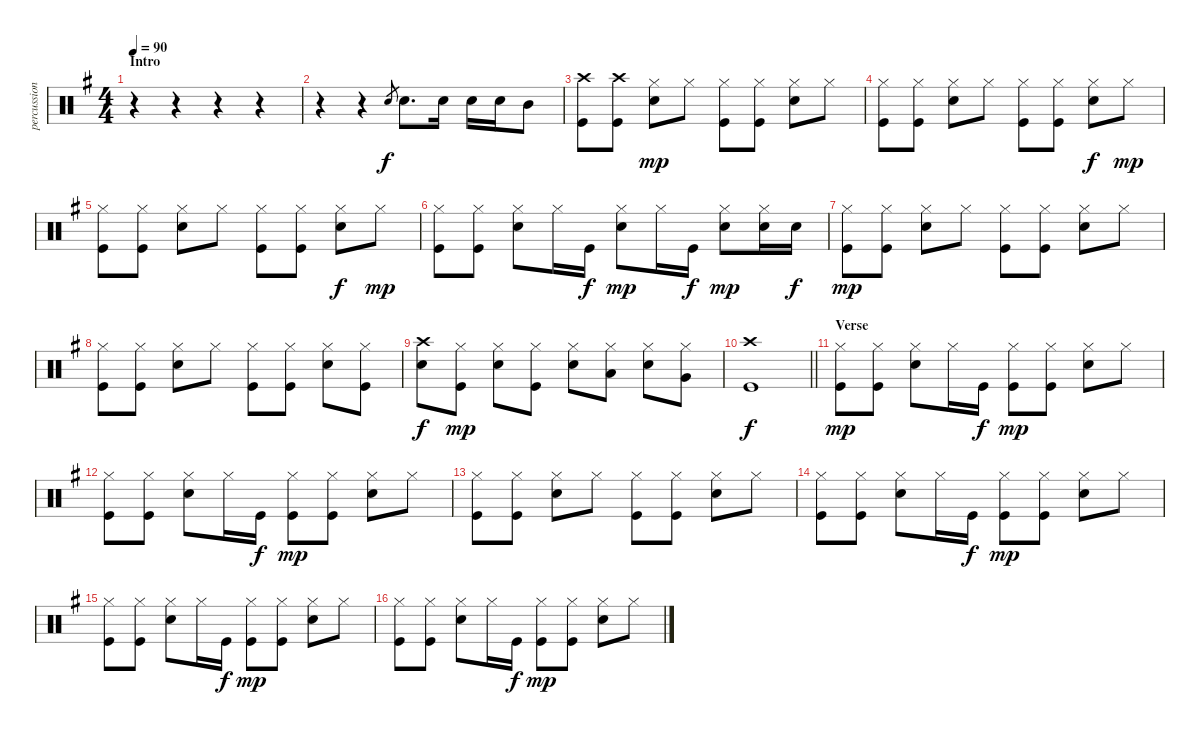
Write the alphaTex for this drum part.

\track ("percussion" "percussion") {instrument percussion}
\staff {score}
\articulation defaults
\ts (4 4)
\section ("" "Intro")
\tempo 90
\clef neutral
\ks g
r.4{dy f} r.4 r.4 r.4 |
r.4 r.4 "Electric Snare (hit)".8{gr} "Electric Snare (hit)".8{d} "Electric Snare (hit)".16 "Electric Snare (hit)".16 "Electric Snare (hit)".16 "Mid Tom (hit)".8 |
("Crash high (hit)" "Kick (hit)").8 ("Crash high (hit)" "Kick (hit)").8 ("Electric Snare (hit)" "Hi-Hat (closed)").8{dy mp} "Hi-Hat (closed)".8 ("Hi-Hat (closed)" "Kick (hit)").8 ("Hi-Hat (closed)" "Kick (hit)").8 ("Electric Snare (hit)" "Hi-Hat (closed)").8 "Hi-Hat (closed)".8 |
("Hi-Hat (closed)" "Kick (hit)").8 ("Hi-Hat (closed)" "Kick (hit)").8 ("Electric Snare (hit)" "Hi-Hat (closed)").8 "Hi-Hat (closed)".8 ("Hi-Hat (closed)" "Kick (hit)").8 ("Hi-Hat (closed)" "Kick (hit)").8 ("Electric Snare (hit)" "Hi-Hat (closed)").8{dy f} "Hi-Hat (closed)".8{dy mp} |
("Hi-Hat (closed)" "Kick (hit)").8 ("Hi-Hat (closed)" "Kick (hit)").8 ("Electric Snare (hit)" "Hi-Hat (closed)").8 "Hi-Hat (closed)".8 ("Hi-Hat (closed)" "Kick (hit)").8 ("Hi-Hat (closed)" "Kick (hit)").8 ("Electric Snare (hit)" "Hi-Hat (closed)").8{dy f} "Hi-Hat (closed)".8{dy mp} |
("Hi-Hat (closed)" "Kick (hit)").8 ("Hi-Hat (closed)" "Kick (hit)").8 ("Electric Snare (hit)" "Hi-Hat (closed)").8 "Hi-Hat (closed)".16 "Kick (hit)".16{dy f} ("Electric Snare (hit)" "Hi-Hat (closed)").8{dy mp} "Hi-Hat (closed)".16 "Kick (hit)".16{dy f} ("Electric Snare (hit)" "Hi-Hat (closed)").8{dy mp} ("Electric Snare (hit)" "Hi-Hat (closed)").16 "Electric Snare (hit)".16{dy f} |
("Hi-Hat (closed)" "Kick (hit)").8{dy mp} ("Hi-Hat (closed)" "Kick (hit)").8 ("Electric Snare (hit)" "Hi-Hat (closed)").8 "Hi-Hat (closed)".8 ("Hi-Hat (closed)" "Kick (hit)").8 ("Hi-Hat (closed)" "Kick (hit)").8 ("Electric Snare (hit)" "Hi-Hat (closed)").8 "Hi-Hat (closed)".8 |
("Hi-Hat (closed)" "Kick (hit)").8 ("Hi-Hat (closed)" "Kick (hit)").8 ("Electric Snare (hit)" "Hi-Hat (closed)").8 "Hi-Hat (closed)".8 ("Hi-Hat (closed)" "Kick (hit)").8 ("Hi-Hat (closed)" "Kick (hit)").8 ("Electric Snare (hit)" "Hi-Hat (closed)").8 ("Hi-Hat (closed)" "Kick (hit)").8 |
("Crash high (hit)" "Electric Snare (hit)").8{dy f} ("Hi-Hat (closed)" "Kick (hit)").8{dy mp} ("Electric Snare (hit)" "Hi-Hat (closed)").8 ("Hi-Hat (closed)" "Kick (hit)").8 ("Electric Snare (hit)" "Hi-Hat (closed)").8 ("Low Tom (hit)" "Hi-Hat (closed)").8 ("Electric Snare (hit)" "Hi-Hat (closed)").8 ("Very Low Tom (hit)" "Hi-Hat (closed)").8 |
\barLineRight lightlight
("Crash high (hit)" "Kick (hit)").1{dy f} |
\section ("" "Verse")
("Hi-Hat (closed)" "Kick (hit)").8{dy mp} ("Hi-Hat (closed)" "Kick (hit)").8 ("Electric Snare (hit)" "Hi-Hat (closed)").8 "Hi-Hat (closed)".16 "Kick (hit)".16{dy f} ("Hi-Hat (closed)" "Kick (hit)").8{dy mp} ("Hi-Hat (closed)" "Kick (hit)").8 ("Electric Snare (hit)" "Hi-Hat (closed)").8 "Hi-Hat (closed)".8 |
("Hi-Hat (closed)" "Kick (hit)").8 ("Hi-Hat (closed)" "Kick (hit)").8 ("Electric Snare (hit)" "Hi-Hat (closed)").8 "Hi-Hat (closed)".16 "Kick (hit)".16{dy f} ("Hi-Hat (closed)" "Kick (hit)").8{dy mp} ("Hi-Hat (closed)" "Kick (hit)").8 ("Electric Snare (hit)" "Hi-Hat (closed)").8 "Hi-Hat (closed)".8 |
("Hi-Hat (closed)" "Kick (hit)").8 ("Hi-Hat (closed)" "Kick (hit)").8 ("Electric Snare (hit)" "Hi-Hat (closed)").8 "Hi-Hat (closed)".8 ("Hi-Hat (closed)" "Kick (hit)").8 ("Hi-Hat (closed)" "Kick (hit)").8 ("Electric Snare (hit)" "Hi-Hat (closed)").8 "Hi-Hat (closed)".8 |
("Hi-Hat (closed)" "Kick (hit)").8 ("Hi-Hat (closed)" "Kick (hit)").8 ("Electric Snare (hit)" "Hi-Hat (closed)").8 "Hi-Hat (closed)".16 "Kick (hit)".16{dy f} ("Hi-Hat (closed)" "Kick (hit)").8{dy mp} ("Hi-Hat (closed)" "Kick (hit)").8 ("Electric Snare (hit)" "Hi-Hat (closed)").8 "Hi-Hat (closed)".8 |
("Hi-Hat (closed)" "Kick (hit)").8 ("Hi-Hat (closed)" "Kick (hit)").8 ("Electric Snare (hit)" "Hi-Hat (closed)").8 "Hi-Hat (closed)".16 "Kick (hit)".16{dy f} ("Hi-Hat (closed)" "Kick (hit)").8{dy mp} ("Hi-Hat (closed)" "Kick (hit)").8 ("Electric Snare (hit)" "Hi-Hat (closed)").8 "Hi-Hat (closed)".8 |
("Hi-Hat (closed)" "Kick (hit)").8 ("Hi-Hat (closed)" "Kick (hit)").8 ("Electric Snare (hit)" "Hi-Hat (closed)").8 "Hi-Hat (closed)".16 "Kick (hit)".16{dy f} ("Hi-Hat (closed)" "Kick (hit)").8{dy mp} ("Hi-Hat (closed)" "Kick (hit)").8 ("Electric Snare (hit)" "Hi-Hat (closed)").8 "Hi-Hat (closed)".8
